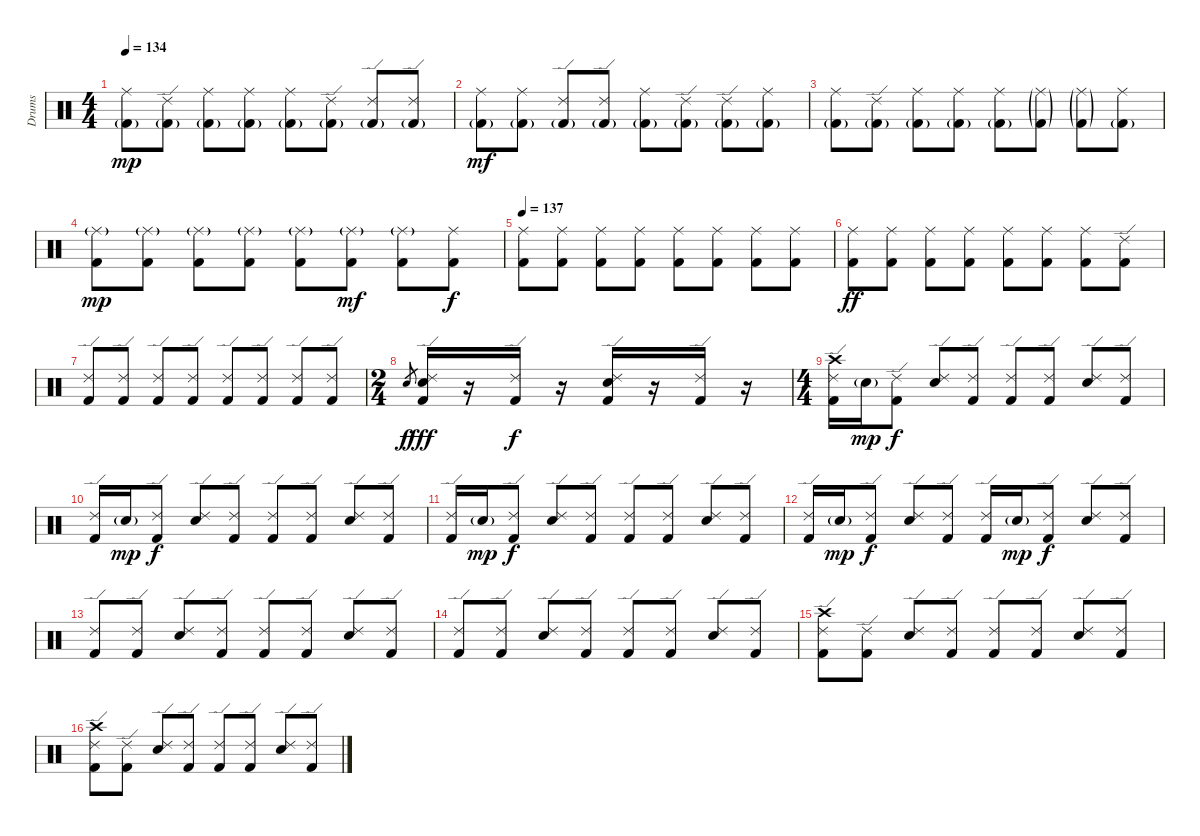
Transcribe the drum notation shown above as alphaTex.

\track ("Drums" "Drums") {instrument percussion}
\staff {score}
\articulation defaults
\ts (4 4)
\tempo 134
\clef neutral
\ks c
("Ride (middle)" "Kick (hit) 2"{g}).8{dy mp volume 10} ("Ride (edge) 2" "Kick (hit) 2"{g}).8 ("Ride (middle)" "Kick (hit) 2"{g}).8 ("Ride (middle)" "Kick (hit) 2"{g}).8 ("Ride (middle)" "Kick (hit) 2"{g}).8 ("Ride (edge) 2" "Kick (hit) 2"{g}).8 ("Ride (edge) 2" "Kick (hit) 2"{g}).8 ("Ride (edge) 2" "Kick (hit) 2"{g}).8 |
("Ride (middle)" "Kick (hit) 2"{g}).8{dy mf} ("Ride (middle)" "Kick (hit) 2"{g}).8 ("Ride (edge) 2" "Kick (hit) 2"{g}).8 ("Ride (edge) 2" "Kick (hit) 2"{g}).8 ("Ride (middle)" "Kick (hit) 2"{g}).8 ("Ride (edge) 2" "Kick (hit) 2"{g}).8 ("Ride (edge) 2" "Kick (hit) 2"{g}).8 ("Ride (middle)" "Kick (hit) 2"{g}).8 |
("Ride (middle)" "Kick (hit) 2"{g}).8 ("Ride (edge) 2" "Kick (hit) 2"{g}).8 ("Ride (middle)" "Kick (hit) 2"{g}).8 ("Ride (middle)" "Kick (hit) 2"{g}).8 ("Ride (middle)" "Kick (hit) 2"{g}).8 ("Ride (middle)"{g} "Kick (hit) 2"{g}).8 ("Ride (middle)"{g} "Kick (hit) 2"{g}).8 ("Ride (middle)" "Kick (hit) 2"{g}).8 |
("Ride (middle)"{g} "Kick (hit) 2").8{dy mp} ("Ride (middle)"{g} "Kick (hit) 2").8 ("Ride (middle)"{g} "Kick (hit) 2").8 ("Ride (middle)"{g} "Kick (hit) 2").8 ("Ride (middle)"{g} "Kick (hit) 2").8 ("Ride (middle)"{g} "Kick (hit) 2").8{dy mf} ("Ride (middle)"{g} "Kick (hit) 2").8 ("Ride (middle)" "Kick (hit) 2").8{dy f} |
\tempo 137
("Ride (middle)" "Kick (hit) 2").8{volume 12} ("Ride (middle)" "Kick (hit) 2").8 ("Ride (middle)" "Kick (hit) 2").8 ("Ride (middle)" "Kick (hit) 2").8 ("Ride (middle)" "Kick (hit) 2").8 ("Ride (middle)" "Kick (hit) 2").8 ("Ride (middle)" "Kick (hit) 2").8 ("Ride (middle)" "Kick (hit) 2").8 |
("Ride (middle)" "Kick (hit) 2").8{dy ff} ("Ride (middle)" "Kick (hit) 2").8 ("Ride (middle)" "Kick (hit) 2").8 ("Ride (middle)" "Kick (hit) 2").8 ("Ride (middle)" "Kick (hit) 2").8 ("Ride (middle)" "Kick (hit) 2").8 ("Ride (middle)" "Kick (hit) 2").8 ("Ride (edge) 2" "Kick (hit) 2").8 |
("Ride (edge) 2" "Kick (hit) 2").8 ("Ride (edge) 2" "Kick (hit) 2").8 ("Ride (edge) 2" "Kick (hit) 2").8 ("Ride (edge) 2" "Kick (hit) 2").8 ("Ride (edge) 2" "Kick (hit) 2").8 ("Ride (edge) 2" "Kick (hit) 2").8 ("Ride (edge) 2" "Kick (hit) 2").8 ("Ride (edge) 2" "Kick (hit) 2").8 |
\ts (2 4)
"Snare (hit) 2".8{gr dy f} ("Ride (edge) 2" "Snare (hit) 2" "Kick (hit) 2").16{dy fff} r.16 ("Ride (edge) 2" "Kick (hit) 2").16{dy f} r.16 ("Ride (edge) 2" "Snare (hit) 2" "Kick (hit) 2").16 r.16 ("Ride (edge) 2" "Kick (hit) 2").16 r.16 |
\ts (4 4)
("Crash high (hit)" "Ride (edge) 2" "Kick (hit) 2").16 "Snare (hit) 2"{g}.16{dy mp} ("Ride (edge) 2" "Kick (hit) 2").8{dy f} ("Ride (edge) 2" "Snare (hit) 2").8 ("Ride (edge) 2" "Kick (hit) 2").8 ("Ride (edge) 2" "Kick (hit) 2").8 ("Ride (edge) 2" "Kick (hit) 2").8 ("Ride (edge) 2" "Snare (hit) 2").8 ("Ride (edge) 2" "Kick (hit) 2").8 |
("Ride (edge) 2" "Kick (hit) 2").16 "Snare (hit) 2"{g}.16{dy mp} ("Ride (edge) 2" "Kick (hit) 2").8{dy f} ("Ride (edge) 2" "Snare (hit) 2").8 ("Ride (edge) 2" "Kick (hit) 2").8 ("Ride (edge) 2" "Kick (hit) 2").8 ("Ride (edge) 2" "Kick (hit) 2").8 ("Ride (edge) 2" "Snare (hit) 2").8 ("Ride (edge) 2" "Kick (hit) 2").8 |
("Ride (edge) 2" "Kick (hit) 2").16 "Snare (hit) 2"{g}.16{dy mp} ("Ride (edge) 2" "Kick (hit) 2").8{dy f} ("Ride (edge) 2" "Snare (hit) 2").8 ("Ride (edge) 2" "Kick (hit) 2").8 ("Ride (edge) 2" "Kick (hit) 2").8 ("Ride (edge) 2" "Kick (hit) 2").8 ("Ride (edge) 2" "Snare (hit) 2").8 ("Ride (edge) 2" "Kick (hit) 2").8 |
("Ride (edge) 2" "Kick (hit) 2").16 "Snare (hit) 2"{g}.16{dy mp} ("Ride (edge) 2" "Kick (hit) 2").8{dy f} ("Ride (edge) 2" "Snare (hit) 2").8 ("Ride (edge) 2" "Kick (hit) 2").8 ("Ride (edge) 2" "Kick (hit) 2").16 "Snare (hit) 2"{g}.16{dy mp} ("Ride (edge) 2" "Kick (hit) 2").8{dy f} ("Ride (edge) 2" "Snare (hit) 2").8 ("Ride (edge) 2" "Kick (hit) 2").8 |
("Ride (edge) 2" "Kick (hit) 2").8 ("Ride (edge) 2" "Kick (hit) 2").8 ("Ride (edge) 2" "Snare (hit) 2").8 ("Ride (edge) 2" "Kick (hit) 2").8 ("Ride (edge) 2" "Kick (hit) 2").8 ("Ride (edge) 2" "Kick (hit) 2").8 ("Ride (edge) 2" "Snare (hit) 2").8 ("Ride (edge) 2" "Kick (hit) 2").8 |
("Ride (edge) 2" "Kick (hit) 2").8 ("Ride (edge) 2" "Kick (hit) 2").8 ("Ride (edge) 2" "Snare (hit) 2").8 ("Ride (edge) 2" "Kick (hit) 2").8 ("Ride (edge) 2" "Kick (hit) 2").8 ("Ride (edge) 2" "Kick (hit) 2").8 ("Ride (edge) 2" "Snare (hit) 2").8 ("Ride (edge) 2" "Kick (hit) 2").8 |
("Crash high (hit)" "Ride (edge) 2" "Kick (hit) 2").8 ("Ride (edge) 2" "Kick (hit) 2").8 ("Ride (edge) 2" "Snare (hit) 2").8 ("Ride (edge) 2" "Kick (hit) 2").8 ("Ride (edge) 2" "Kick (hit) 2").8 ("Ride (edge) 2" "Kick (hit) 2").8 ("Ride (edge) 2" "Snare (hit) 2").8 ("Ride (edge) 2" "Kick (hit) 2").8 |
("Crash high (hit)" "Ride (edge) 2" "Kick (hit) 2").8 ("Ride (edge) 2" "Kick (hit) 2").8 ("Ride (edge) 2" "Snare (hit) 2").8 ("Ride (edge) 2" "Kick (hit) 2").8 ("Ride (edge) 2" "Kick (hit) 2").8 ("Ride (edge) 2" "Kick (hit) 2").8 ("Ride (edge) 2" "Snare (hit) 2").8 ("Ride (edge) 2" "Kick (hit) 2").8
